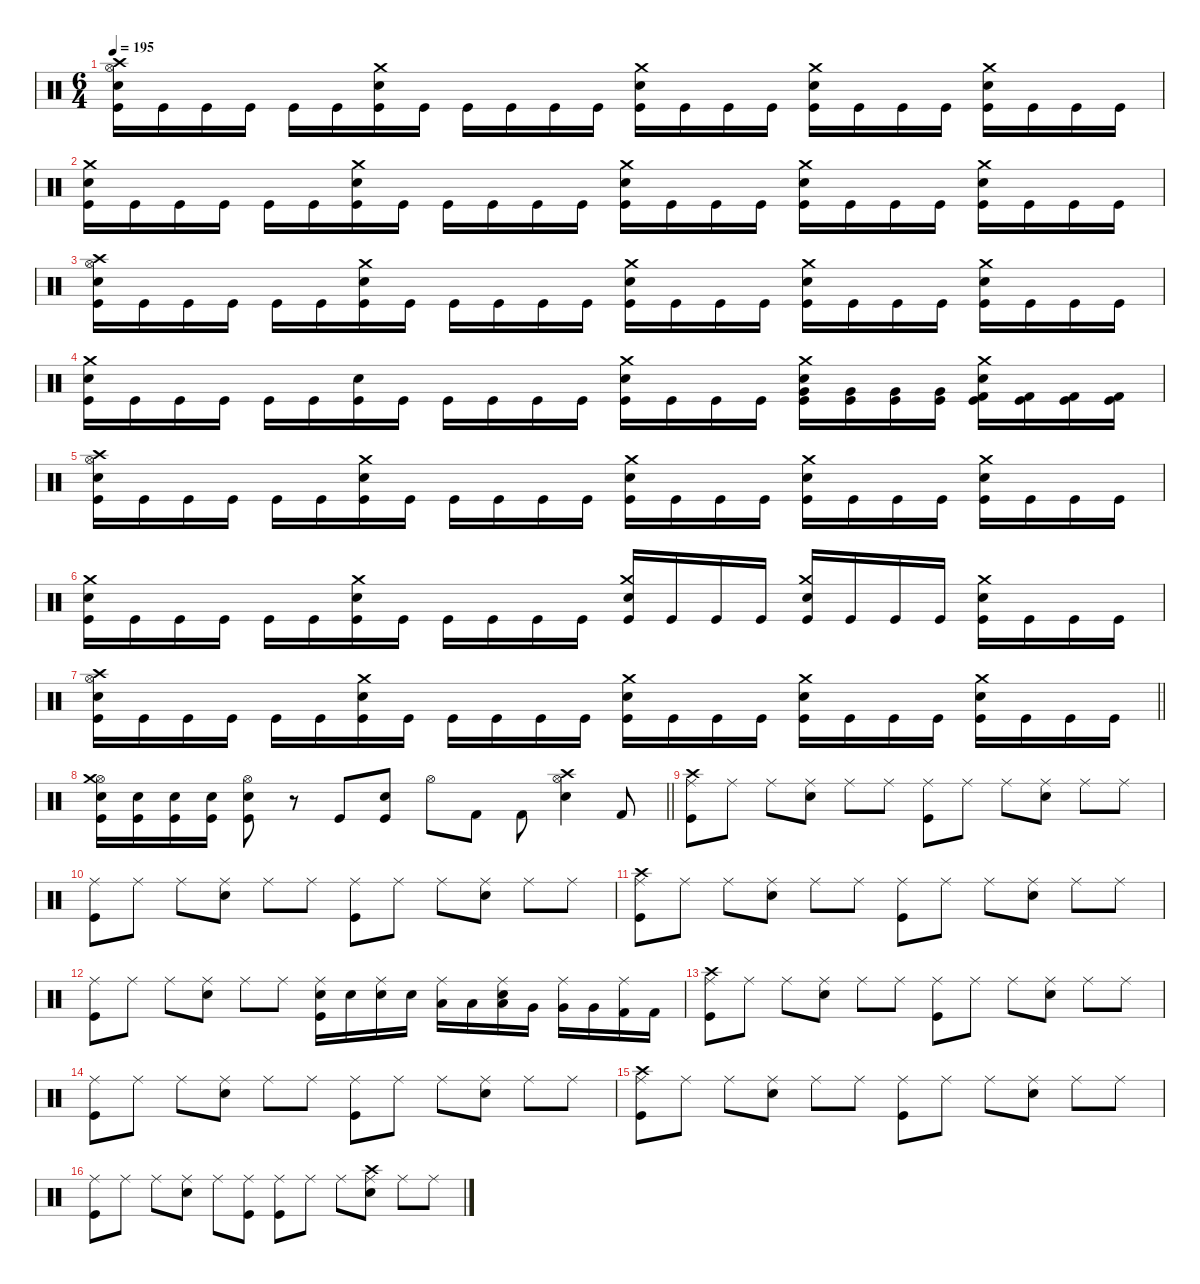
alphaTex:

\defaultSystemsLayout 4
\hideDynamics
\bracketExtendMode nobrackets
\singleTrackTrackNamePolicy hidden
\multiTrackTrackNamePolicy hidden
\firstSystemTrackNameMode fullname
\firstSystemTrackNameOrientation horizontal
\otherSystemsTrackNameOrientation horizontal
\track ("Percussion" "drm.") {defaultSystemsLayout 4 instrument percussion}
\staff {score}
\articulation defaults
\ts (6 4)
\tempo 195
\clef neutral
\ks c
("Crash high (hit)" "Hi-Hat (open)" "Snare (hit) 2" "Kick (hit)").16{dy f beam Down} "Kick (hit)".16{beam Down} "Kick (hit)".16{beam Down} "Kick (hit)".16{beam Down} "Kick (hit)".16{beam Down} "Kick (hit)".16{beam Down} ("Crash medium (hit)" "Snare (hit) 2" "Kick (hit)").16{beam Down} "Kick (hit)".16{beam Down} "Kick (hit)".16{beam Down} "Kick (hit)".16{beam Down} "Kick (hit)".16{beam Down} "Kick (hit)".16{beam Down} ("Crash medium (hit)" "Snare (hit) 2" "Kick (hit)").16{beam Down} "Kick (hit)".16{beam Down} "Kick (hit)".16{beam Down} "Kick (hit)".16{beam Down} ("Crash medium (hit)" "Snare (hit) 2" "Kick (hit)").16{beam Down} "Kick (hit)".16{beam Down} "Kick (hit)".16{beam Down} "Kick (hit)".16{beam Down} ("Crash medium (hit)" "Snare (hit) 2" "Kick (hit)").16{beam Down} "Kick (hit)".16{beam Down} "Kick (hit)".16{beam Down} "Kick (hit)".16{beam Down} |
("Crash medium (hit)" "Snare (hit) 2" "Kick (hit)").16{beam Down} "Kick (hit)".16{beam Down} "Kick (hit)".16{beam Down} "Kick (hit)".16{beam Down} "Kick (hit)".16{beam Down} "Kick (hit)".16{beam Down} ("Crash medium (hit)" "Snare (hit) 2" "Kick (hit)").16{beam Down} "Kick (hit)".16{beam Down} "Kick (hit)".16{beam Down} "Kick (hit)".16{beam Down} "Kick (hit)".16{beam Down} "Kick (hit)".16{beam Down} ("Crash medium (hit)" "Snare (hit) 2" "Kick (hit)").16{beam Down} "Kick (hit)".16{beam Down} "Kick (hit)".16{beam Down} "Kick (hit)".16{beam Down} ("Crash medium (hit)" "Snare (hit) 2" "Kick (hit)").16{beam Down} "Kick (hit)".16{beam Down} "Kick (hit)".16{beam Down} "Kick (hit)".16{beam Down} ("Crash medium (hit)" "Snare (hit) 2" "Kick (hit)").16{beam Down} "Kick (hit)".16{beam Down} "Kick (hit)".16{beam Down} "Kick (hit)".16{beam Down} |
("Crash high (hit)" "Hi-Hat (open)" "Snare (hit) 2" "Kick (hit)").16{beam Down} "Kick (hit)".16{beam Down} "Kick (hit)".16{beam Down} "Kick (hit)".16{beam Down} "Kick (hit)".16{beam Down} "Kick (hit)".16{beam Down} ("Crash medium (hit)" "Snare (hit) 2" "Kick (hit)").16{beam Down} "Kick (hit)".16{beam Down} "Kick (hit)".16{beam Down} "Kick (hit)".16{beam Down} "Kick (hit)".16{beam Down} "Kick (hit)".16{beam Down} ("Crash medium (hit)" "Snare (hit) 2" "Kick (hit)").16{beam Down} "Kick (hit)".16{beam Down} "Kick (hit)".16{beam Down} "Kick (hit)".16{beam Down} ("Crash medium (hit)" "Snare (hit) 2" "Kick (hit)").16{beam Down} "Kick (hit)".16{beam Down} "Kick (hit)".16{beam Down} "Kick (hit)".16{beam Down} ("Crash medium (hit)" "Snare (hit) 2" "Kick (hit)").16{beam Down} "Kick (hit)".16{beam Down} "Kick (hit)".16{beam Down} "Kick (hit)".16{beam Down} |
("Crash medium (hit)" "Snare (hit) 2" "Kick (hit)").16{beam Down} "Kick (hit)".16{beam Down} "Kick (hit)".16{beam Down} "Kick (hit)".16{beam Down} "Kick (hit)".16{beam Down} "Kick (hit)".16{beam Down} ("Snare (hit) 2" "Kick (hit)").16{beam Down} "Kick (hit)".16{beam Down} "Kick (hit)".16{beam Down} "Kick (hit)".16{beam Down} "Kick (hit)".16{beam Down} "Kick (hit)".16{beam Down} ("Crash medium (hit)" "Snare (hit) 2" "Kick (hit)").16{beam Down} "Kick (hit)".16{beam Down} "Kick (hit)".16{beam Down} "Kick (hit)".16{beam Down} ("Very Low Tom (hit)" "Crash medium (hit)" "Snare (hit) 2" "Kick (hit)").16{beam Down} ("Very Low Tom (hit)" "Kick (hit)").16{beam Down} ("Very Low Tom (hit)" "Kick (hit)").16{beam Down} ("Very Low Tom (hit)" "Kick (hit)").16{beam Down} ("Kick (hit) 2" "Crash medium (hit)" "Snare (hit) 2" "Kick (hit)").16{beam Down} ("Kick (hit) 2" "Kick (hit)").16{beam Down} ("Kick (hit) 2" "Kick (hit)").16{beam Down} ("Kick (hit) 2" "Kick (hit)").16{beam Down} |
("Crash high (hit)" "Hi-Hat (open)" "Snare (hit) 2" "Kick (hit)").16{beam Down} "Kick (hit)".16{beam Down} "Kick (hit)".16{beam Down} "Kick (hit)".16{beam Down} "Kick (hit)".16{beam Down} "Kick (hit)".16{beam Down} ("Crash medium (hit)" "Snare (hit) 2" "Kick (hit)").16{beam Down} "Kick (hit)".16{beam Down} "Kick (hit)".16{beam Down} "Kick (hit)".16{beam Down} "Kick (hit)".16{beam Down} "Kick (hit)".16{beam Down} ("Crash medium (hit)" "Snare (hit) 2" "Kick (hit)").16{beam Down} "Kick (hit)".16{beam Down} "Kick (hit)".16{beam Down} "Kick (hit)".16{beam Down} ("Crash medium (hit)" "Snare (hit) 2" "Kick (hit)").16{beam Down} "Kick (hit)".16{beam Down} "Kick (hit)".16{beam Down} "Kick (hit)".16{beam Down} ("Crash medium (hit)" "Snare (hit) 2" "Kick (hit)").16{beam Down} "Kick (hit)".16{beam Down} "Kick (hit)".16{beam Down} "Kick (hit)".16{beam Down} |
("Crash medium (hit)" "Snare (hit) 2" "Kick (hit)").16{beam Down} "Kick (hit)".16{beam Down} "Kick (hit)".16{beam Down} "Kick (hit)".16{beam Down} "Kick (hit)".16{beam Down} "Kick (hit)".16{beam Down} ("Crash medium (hit)" "Snare (hit) 2" "Kick (hit)").16{beam Down} "Kick (hit)".16{beam Down} "Kick (hit)".16{beam Down} "Kick (hit)".16{beam Down} "Kick (hit)".16{beam Down} "Kick (hit)".16{beam Down} ("Crash medium (hit)" "Snare (hit) 2" "Kick (hit)").16{beam Up} "Kick (hit)".16{beam Up} "Kick (hit)".16{beam Up} "Kick (hit)".16{beam Up} ("Crash medium (hit)" "Snare (hit) 2" "Kick (hit)").16{beam Up} "Kick (hit)".16{beam Up} "Kick (hit)".16{beam Down} "Kick (hit)".16{beam Down} ("Crash medium (hit)" "Snare (hit) 2" "Kick (hit)").16{beam Down} "Kick (hit)".16{beam Down} "Kick (hit)".16{beam Down} "Kick (hit)".16{beam Down} |
\barLineRight lightlight
("Crash high (hit)" "Hi-Hat (open)" "Snare (hit) 2" "Kick (hit)").16{beam Down} "Kick (hit)".16{beam Down} "Kick (hit)".16{beam Down} "Kick (hit)".16{beam Down} "Kick (hit)".16{beam Down} "Kick (hit)".16{beam Down} ("Crash medium (hit)" "Snare (hit) 2" "Kick (hit)").16{beam Down} "Kick (hit)".16{beam Down} "Kick (hit)".16{beam Down} "Kick (hit)".16{beam Down} "Kick (hit)".16{beam Down} "Kick (hit)".16{beam Down} ("Crash medium (hit)" "Snare (hit) 2" "Kick (hit)").16{beam Down} "Kick (hit)".16{beam Down} "Kick (hit)".16{beam Down} "Kick (hit)".16{beam Down} ("Crash medium (hit)" "Snare (hit) 2" "Kick (hit)").16{beam Down} "Kick (hit)".16{beam Down} "Kick (hit)".16{beam Down} "Kick (hit)".16{beam Down} ("Crash medium (hit)" "Snare (hit) 2" "Kick (hit)").16{beam Down} "Kick (hit)".16{beam Down} "Kick (hit)".16{beam Down} "Kick (hit)".16{beam Down} |
\barLineRight lightlight
("Hi-Hat (open)" "Crash medium (hit)" "Snare (hit) 2" "Kick (hit)").16{beam Down} ("Snare (hit) 2" "Kick (hit)").16{beam Down} ("Snare (hit) 2" "Kick (hit)").16{beam Down} ("Snare (hit) 2" "Kick (hit)").16{beam Down} ("Hi-Hat (open)" "Snare (hit) 2" "Kick (hit)").8{beam Down} r.8{beam Down} "Kick (hit)".8{beam Up} ("Snare (hit) 2" "Kick (hit)").8{beam Up} "Hi-Hat (open)".8{beam Down} "Kick (hit) 2".8{beam Down} "Kick (hit) 2".8{beam Down} ("Hi-Hat (open)" "Crash high (hit)" "Snare (hit) 2").4{beam Down} "Kick (hit) 2".8{beam Up} |
("Ride (middle)" "Crash high (hit)" "Kick (hit)").8{beam Down} "Ride (middle)".8{beam Down} "Ride (middle)".8{beam Down} ("Ride (middle)" "Snare (hit) 2").8{beam Down} "Ride (middle)".8{beam Down} "Ride (middle)".8{beam Down} ("Ride (middle)" "Kick (hit)").8{beam Down} "Ride (middle)".8{beam Down} "Ride (middle)".8{beam Down} ("Ride (middle)" "Snare (hit) 2").8{beam Down} "Ride (middle)".8{beam Down} "Ride (middle)".8{beam Down} |
("Ride (middle)" "Kick (hit)").8{beam Down} "Ride (middle)".8{beam Down} "Ride (middle)".8{beam Down} ("Ride (middle)" "Snare (hit) 2").8{beam Down} "Ride (middle)".8{beam Down} "Ride (middle)".8{beam Down} ("Ride (middle)" "Kick (hit)").8{beam Down} "Ride (middle)".8{beam Down} "Ride (middle)".8{beam Down} ("Ride (middle)" "Snare (hit) 2").8{beam Down} "Ride (middle)".8{beam Down} "Ride (middle)".8{beam Down} |
("Ride (middle)" "Crash high (hit)" "Kick (hit)").8{beam Down} "Ride (middle)".8{beam Down} "Ride (middle)".8{beam Down} ("Ride (middle)" "Snare (hit) 2").8{beam Down} "Ride (middle)".8{beam Down} "Ride (middle)".8{beam Down} ("Ride (middle)" "Kick (hit)").8{beam Down} "Ride (middle)".8{beam Down} "Ride (middle)".8{beam Down} ("Ride (middle)" "Snare (hit) 2").8{beam Down} "Ride (middle)".8{beam Down} "Ride (middle)".8{beam Down} |
("Ride (middle)" "Kick (hit)").8{beam Down} "Ride (middle)".8{beam Down} "Ride (middle)".8{beam Down} ("Ride (middle)" "Snare (hit) 2").8{beam Down} "Ride (middle)".8{beam Down} "Ride (middle)".8{beam Down} ("Ride (middle)" "Snare (hit) 2" "Kick (hit)").16{beam Down} "Snare (hit) 2".16{beam Down} ("Ride (middle)" "Snare (hit) 2").16{beam Down} "Snare (hit) 2".16{beam Down} ("Ride (middle)" "Low Tom (hit)").16{beam Down} "Low Tom (hit)".16{beam Down} ("Ride (middle)" "Low Tom (hit)" "Snare (hit) 2").16{beam Down} "Very Low Tom (hit)".16{beam Down} ("Ride (middle)" "Very Low Tom (hit)").16{beam Down} "Very Low Tom (hit)".16{beam Down} ("Ride (middle)" "Kick (hit) 2").16{beam Down} "Kick (hit) 2".16{beam Down} |
("Ride (middle)" "Crash high (hit)" "Kick (hit)").8{beam Down} "Ride (middle)".8{beam Down} "Ride (middle)".8{beam Down} ("Ride (middle)" "Snare (hit) 2").8{beam Down} "Ride (middle)".8{beam Down} "Ride (middle)".8{beam Down} ("Ride (middle)" "Kick (hit)").8{beam Down} "Ride (middle)".8{beam Down} "Ride (middle)".8{beam Down} ("Ride (middle)" "Snare (hit) 2").8{beam Down} "Ride (middle)".8{beam Down} "Ride (middle)".8{beam Down} |
("Ride (middle)" "Kick (hit)").8{beam Down} "Ride (middle)".8{beam Down} "Ride (middle)".8{beam Down} ("Ride (middle)" "Snare (hit) 2").8{beam Down} "Ride (middle)".8{beam Down} "Ride (middle)".8{beam Down} ("Ride (middle)" "Kick (hit)").8{beam Down} "Ride (middle)".8{beam Down} "Ride (middle)".8{beam Down} ("Ride (middle)" "Snare (hit) 2").8{beam Down} "Ride (middle)".8{beam Down} "Ride (middle)".8{beam Down} |
("Ride (middle)" "Crash high (hit)" "Kick (hit)").8{beam Down} "Ride (middle)".8{beam Down} "Ride (middle)".8{beam Down} ("Ride (middle)" "Snare (hit) 2").8{beam Down} "Ride (middle)".8{beam Down} "Ride (middle)".8{beam Down} ("Ride (middle)" "Kick (hit)").8{beam Down} "Ride (middle)".8{beam Down} "Ride (middle)".8{beam Down} ("Ride (middle)" "Snare (hit) 2").8{beam Down} "Ride (middle)".8{beam Down} "Ride (middle)".8{beam Down} |
("Ride (middle)" "Kick (hit)").8{beam Down} "Ride (middle)".8{beam Down} "Ride (middle)".8{beam Down} ("Ride (middle)" "Snare (hit) 2").8{beam Down} "Ride (middle)".8{beam Down} ("Ride (middle)" "Kick (hit)").8{beam Down} ("Ride (middle)" "Kick (hit)").8{beam Down} "Ride (middle)".8{beam Down} "Ride (middle)".8{beam Down} ("Ride (middle)" "Crash high (hit)" "Snare (hit) 2").8{beam Down} "Ride (middle)".8{beam Down} "Ride (middle)".8{beam Down}
